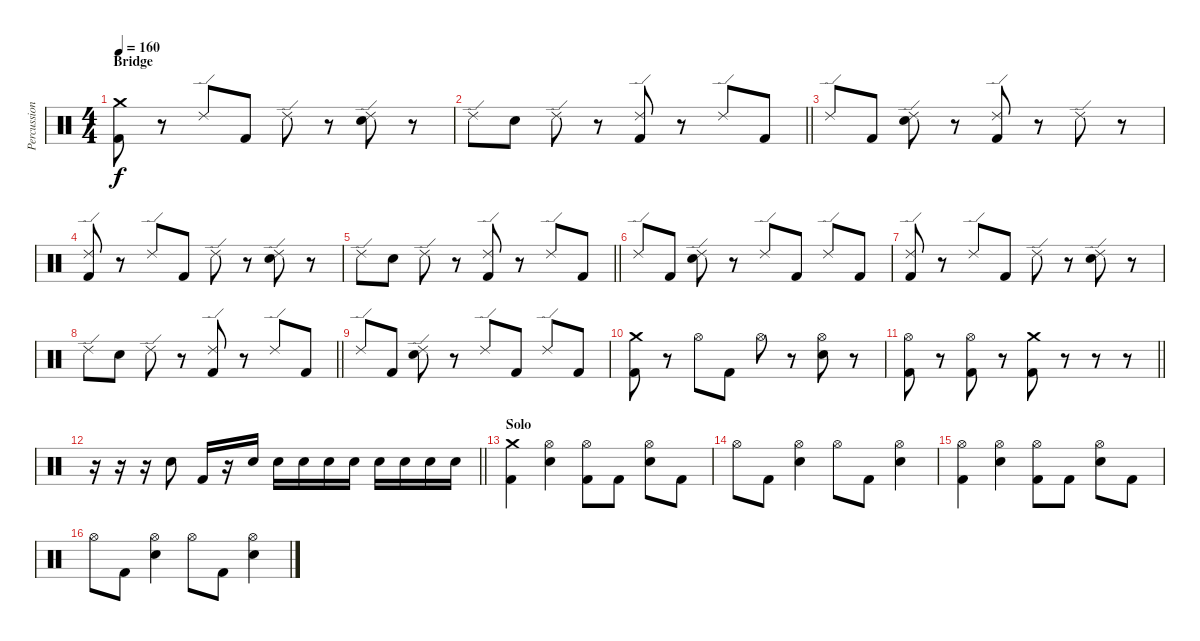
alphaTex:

\track ("Percussion" "Percussion") {instrument percussion}
\staff {score}
\articulation defaults
\ts (4 4)
\section ("" "Bridge")
\tempo 160
\clef neutral
\ks c
("Crash medium (hit)" "Kick (hit) 2").8{dy f} r.8 "Ride (edge) 2".8 "Kick (hit) 2".8 "Ride (edge) 2".8 r.8 ("Ride (edge) 2" "Electric Snare (hit)").8 r.8 |
\barLineRight lightlight "Ride (edge) 2".8 "Electric Snare (hit)".8 "Ride (edge) 2".8
r.8 ("Ride (edge) 2" "Kick (hit) 2").8 r.8 "Ride (edge) 2".8 "Kick (hit) 2".8 |
"Ride (edge) 2".8 "Kick (hit) 2".8 ("Ride (edge) 2" "Electric Snare (hit)").8 r.8 ("Ride (edge) 2" "Kick (hit) 2").8 r.8 "Ride (edge) 2".8 r.8 |
("Ride (edge) 2" "Kick (hit) 2").8 r.8 "Ride (edge) 2".8 "Kick (hit) 2".8 "Ride (edge) 2".8 r.8 ("Ride (edge) 2" "Electric Snare (hit)").8 r.8 |
\barLineRight lightlight "Ride (edge) 2".8 "Electric Snare (hit)".8 "Ride (edge) 2".8
r.8 ("Ride (edge) 2" "Kick (hit) 2").8 r.8 "Ride (edge) 2".8 "Kick (hit) 2".8 |
"Ride (edge) 2".8 "Kick (hit) 2".8 ("Ride (edge) 2" "Electric Snare (hit)").8 r.8 "Ride (edge) 2".8 "Kick (hit) 2".8 "Ride (edge) 2".8 "Kick (hit) 2".8 |
("Ride (edge) 2" "Kick (hit) 2").8 r.8 "Ride (edge) 2".8 "Kick (hit) 2".8 "Ride (edge) 2".8 r.8 ("Ride (edge) 2" "Electric Snare (hit)").8 r.8 |
\barLineRight lightlight "Ride (edge) 2".8 "Electric Snare (hit)".8 "Ride (edge) 2".8
r.8 ("Ride (edge) 2" "Kick (hit) 2").8 r.8 "Ride (edge) 2".8 "Kick (hit) 2".8 |
"Ride (edge) 2".8 "Kick (hit) 2".8 ("Ride (edge) 2" "Electric Snare (hit)").8 r.8 "Ride (edge) 2".8 "Kick (hit) 2".8 "Ride (edge) 2".8 "Kick (hit) 2".8 |
("Crash medium (hit)" "Kick (hit) 2").8 r.8 "Hi-Hat (open)".8 "Kick (hit) 2".8 "Hi-Hat (open)".8 r.8 ("Hi-Hat (open)" "Electric Snare (hit)").8 r.8 |
\barLineRight lightlight
("Hi-Hat (open)" "Kick (hit) 2").8 r.8 ("Hi-Hat (open)" "Kick (hit) 2").8 r.8 ("Crash medium (hit)" "Kick (hit) 2").8 r.8 r.8 r.8 |
\barLineRight lightlight
r.16 r.16 r.16 "Electric Snare (hit)".8 "Kick (hit) 2".16 r.16 "Electric Snare (hit)".16 "Electric Snare (hit)".16 "Electric Snare (hit)".16 "Electric Snare (hit)".16 "Electric Snare (hit)".16 "Electric Snare (hit)".16 "Electric Snare (hit)".16 "Electric Snare (hit)".16 "Electric Snare (hit)".16 |
\section ("" "Solo")
("Crash medium (hit)" "Kick (hit) 2").4 ("Hi-Hat (open)" "Electric Snare (hit)").4 ("Hi-Hat (open)" "Kick (hit) 2").8 "Kick (hit) 2".8 ("Hi-Hat (open)" "Electric Snare (hit)").8 "Kick (hit) 2".8 |
"Hi-Hat (open)".8 "Kick (hit) 2".8 ("Hi-Hat (open)" "Electric Snare (hit)").4 "Hi-Hat (open)".8 "Kick (hit) 2".8 ("Hi-Hat (open)" "Electric Snare (hit)").4 |
("Hi-Hat (open)" "Kick (hit) 2").4 ("Hi-Hat (open)" "Electric Snare (hit)").4 ("Hi-Hat (open)" "Kick (hit) 2").8 "Kick (hit) 2".8 ("Hi-Hat (open)" "Electric Snare (hit)").8 "Kick (hit) 2".8 |
"Hi-Hat (open)".8 "Kick (hit) 2".8 ("Hi-Hat (open)" "Electric Snare (hit)").4 "Hi-Hat (open)".8 "Kick (hit) 2".8 ("Hi-Hat (open)" "Electric Snare (hit)").4
